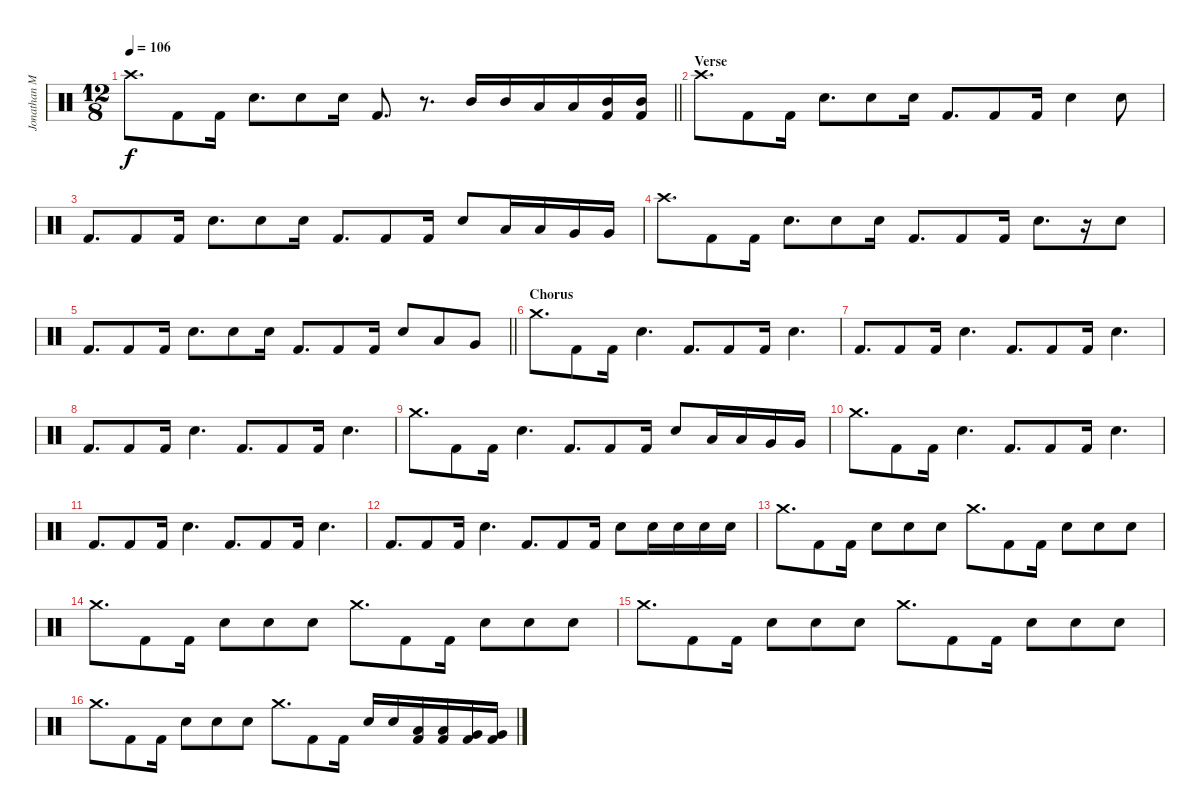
\track ("Jonathan Mover (Studio Drummer)" "Jonathan M") {instrument percussion}
\staff {score}
\articulation defaults
\ts (12 8)
\tempo 106
\clef neutral
\barLineRight lightlight
\ks c "Crash high (hit)".8{d dy f} "Kick (hit) 2".8 "Kick (hit) 2".16 "Electric Snare (hit)".8{d} "Electric Snare (hit)".8 "Electric Snare (hit)".16 "Kick (hit) 2".8{d}
r.8{d} "Mid Tom (hit)".16 "Mid Tom (hit)".16 "Low Tom (hit)".16 "Low Tom (hit)".16 ("Mid Tom (hit)" "Kick (hit) 2").16 ("Mid Tom (hit)" "Kick (hit) 2").16 |
\section ("" "Verse")
"Crash high (hit)".8{d} "Kick (hit) 2".8 "Kick (hit) 2".16 "Electric Snare (hit)".8{d} "Electric Snare (hit)".8 "Electric Snare (hit)".16 "Kick (hit) 2".8{d} "Kick (hit) 2".8 "Kick (hit) 2".16 "Electric Snare (hit)".4 "Electric Snare (hit)".8 |
"Kick (hit) 2".8{d} "Kick (hit) 2".8 "Kick (hit) 2".16 "Electric Snare (hit)".8{d} "Electric Snare (hit)".8 "Electric Snare (hit)".16 "Kick (hit) 2".8{d} "Kick (hit) 2".8 "Kick (hit) 2".16 "Electric Snare (hit)".8 "Low Tom (hit)".16 "Low Tom (hit)".16 "Very Low Tom (hit)".16 "Very Low Tom (hit)".16 |
"Crash high (hit)".8{d} "Kick (hit) 2".8 "Kick (hit) 2".16 "Electric Snare (hit)".8{d} "Electric Snare (hit)".8 "Electric Snare (hit)".16 "Kick (hit) 2".8{d} "Kick (hit) 2".8 "Kick (hit) 2".16 "Electric Snare (hit)".8{d} r.16 "Electric Snare (hit)".8 |
\barLineRight lightlight "Kick (hit) 2".8{d} "Kick (hit) 2".8 "Kick (hit) 2".16 "Electric Snare (hit)".8{d} "Electric Snare (hit)".8 "Electric Snare (hit)".16 "Kick (hit) 2".8{d} "Kick (hit) 2".8 "Kick (hit) 2".16 "Electric Snare (hit)".8 "Low Tom (hit)".8 "Very Low Tom (hit)".8
|
\section ("" "Chorus")
"Crash medium (hit)".8{d} "Kick (hit) 2".8 "Kick (hit) 2".16 "Electric Snare (hit)".4{d} "Kick (hit) 2".8{d} "Kick (hit) 2".8 "Kick (hit) 2".16 "Electric Snare (hit)".4{d} |
"Kick (hit) 2".8{d} "Kick (hit) 2".8 "Kick (hit) 2".16 "Electric Snare (hit)".4{d} "Kick (hit) 2".8{d} "Kick (hit) 2".8 "Kick (hit) 2".16 "Electric Snare (hit)".4{d} |
"Kick (hit) 2".8{d} "Kick (hit) 2".8 "Kick (hit) 2".16 "Electric Snare (hit)".4{d} "Kick (hit) 2".8{d} "Kick (hit) 2".8 "Kick (hit) 2".16 "Electric Snare (hit)".4{d} |
"Crash medium (hit)".8{d} "Kick (hit) 2".8 "Kick (hit) 2".16 "Electric Snare (hit)".4{d} "Kick (hit) 2".8{d} "Kick (hit) 2".8 "Kick (hit) 2".16 "Electric Snare (hit)".8 "Low Tom (hit)".16 "Low Tom (hit)".16 "Very Low Tom (hit)".16 "Very Low Tom (hit)".16 |
"Crash medium (hit)".8{d} "Kick (hit) 2".8 "Kick (hit) 2".16 "Electric Snare (hit)".4{d} "Kick (hit) 2".8{d} "Kick (hit) 2".8 "Kick (hit) 2".16 "Electric Snare (hit)".4{d} |
"Kick (hit) 2".8{d} "Kick (hit) 2".8 "Kick (hit) 2".16 "Electric Snare (hit)".4{d} "Kick (hit) 2".8{d} "Kick (hit) 2".8 "Kick (hit) 2".16 "Electric Snare (hit)".4{d} |
"Kick (hit) 2".8{d} "Kick (hit) 2".8 "Kick (hit) 2".16 "Electric Snare (hit)".4{d} "Kick (hit) 2".8{d} "Kick (hit) 2".8 "Kick (hit) 2".16 "Electric Snare (hit)".8 "Electric Snare (hit)".16 "Electric Snare (hit)".16 "Electric Snare (hit)".16 "Electric Snare (hit)".16 |
"Crash medium (hit)".8{d} "Kick (hit) 2".8 "Kick (hit) 2".16 "Electric Snare (hit)".8 "Electric Snare (hit)".8 "Electric Snare (hit)".8 "Crash medium (hit)".8{d} "Kick (hit) 2".8 "Kick (hit) 2".16 "Snare (hit) 2".8 "Snare (hit) 2".8 "Snare (hit) 2".8 |
"Crash medium (hit)".8{d} "Kick (hit) 2".8 "Kick (hit) 2".16 "Electric Snare (hit)".8 "Electric Snare (hit)".8 "Electric Snare (hit)".8 "Crash medium (hit)".8{d} "Kick (hit) 2".8 "Kick (hit) 2".16 "Snare (hit) 2".8 "Snare (hit) 2".8 "Snare (hit) 2".8 |
"Crash medium (hit)".8{d} "Kick (hit) 2".8 "Kick (hit) 2".16 "Electric Snare (hit)".8 "Electric Snare (hit)".8 "Electric Snare (hit)".8 "Crash medium (hit)".8{d} "Kick (hit) 2".8 "Kick (hit) 2".16 "Snare (hit) 2".8 "Snare (hit) 2".8 "Snare (hit) 2".8 |
"Crash medium (hit)".8{d} "Kick (hit) 2".8 "Kick (hit) 2".16 "Electric Snare (hit)".8 "Electric Snare (hit)".8 "Electric Snare (hit)".8 "Crash medium (hit)".8{d} "Kick (hit) 2".8 "Kick (hit) 2".16 "Snare (hit) 2".16 "Snare (hit) 2".16 ("Low Tom (hit)" "Kick (hit) 2").16 ("Low Tom (hit)" "Kick (hit) 2").16 ("Very Low Tom (hit)" "Kick (hit) 2").16 ("Very Low Tom (hit)" "Kick (hit) 2").16
